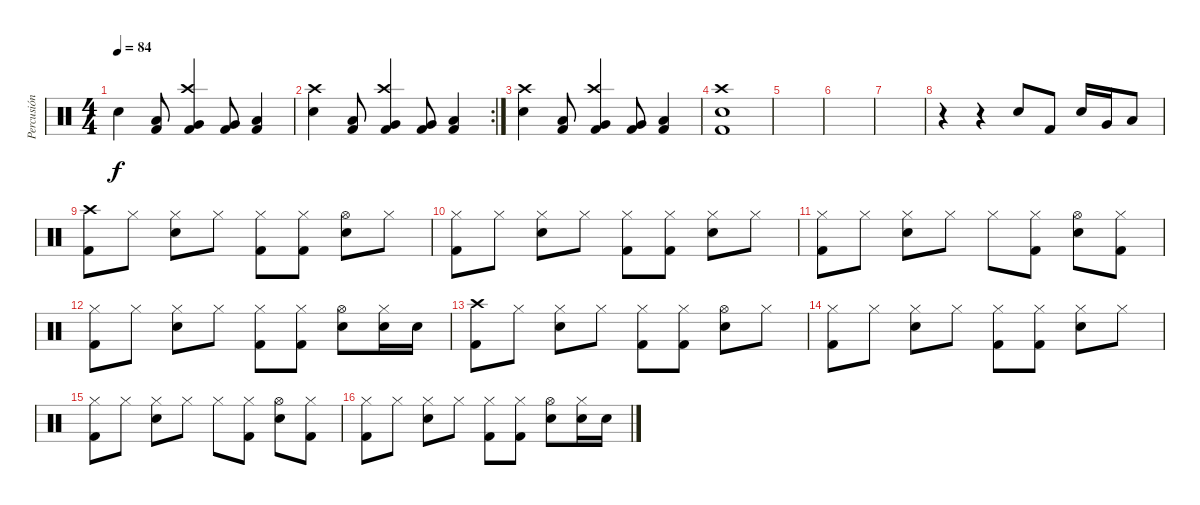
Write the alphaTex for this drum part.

\track ("Percusión" "Percusión") {instrument percussion}
\staff {score}
\articulation defaults
\ts (4 4)
\tempo 84
\clef neutral
\ks c "Electric Snare (hit)".4{dy f}
("Low Tom (hit)" "Kick (hit) 2").8 ("Crash high (hit)" "Very Low Tom (hit)" "Kick (hit) 2").4 ("Very Low Tom (hit)" "Kick (hit) 2").8 ("Low Floor Tom (hit)" "Kick (hit) 2").4 |
\rc 2
("Crash high (hit)" "Electric Snare (hit)").4 ("Low Tom (hit)" "Kick (hit) 2").8 ("Crash high (hit)" "Very Low Tom (hit)" "Kick (hit) 2").4 ("Very Low Tom (hit)" "Kick (hit) 2").8 ("Low Floor Tom (hit)" "Kick (hit) 2").4 |
("Crash high (hit)" "Electric Snare (hit)").4 ("Low Tom (hit)" "Kick (hit) 2").8 ("Crash high (hit)" "Very Low Tom (hit)" "Kick (hit) 2").4 ("Very Low Tom (hit)" "Kick (hit) 2").8 ("Low Floor Tom (hit)" "Kick (hit) 2").4 |
("Crash high (hit)" "Electric Snare (hit)" "Kick (hit) 2").1 |
|
|
|
r.4 r.4 "Snare (hit) 2".8 "Kick (hit) 2".8 "Snare (hit) 2".16 "Very Low Tom (hit)".16 "Low Tom (hit)".8 |
("Crash high (hit)" "Kick (hit) 2").8 "Hi-Hat (closed)".8 ("Hi-Hat (closed)" "Electric Snare (hit)").8 "Hi-Hat (closed)".8 ("Hi-Hat (closed)" "Kick (hit) 2").8 ("Hi-Hat (closed)" "Kick (hit) 2").8 ("Hi-Hat (open)" "Electric Snare (hit)").8 "Hi-Hat (closed)".8 |
("Hi-Hat (closed)" "Kick (hit) 2").8 "Hi-Hat (closed)".8 ("Hi-Hat (closed)" "Electric Snare (hit)").8 "Hi-Hat (closed)".8 ("Hi-Hat (closed)" "Kick (hit) 2").8 ("Hi-Hat (closed)" "Kick (hit) 2").8 ("Hi-Hat (closed)" "Electric Snare (hit)").8 "Hi-Hat (closed)".8 |
("Hi-Hat (closed)" "Kick (hit) 2").8 "Hi-Hat (closed)".8 ("Hi-Hat (closed)" "Electric Snare (hit)").8 "Hi-Hat (closed)".8 "Hi-Hat (closed)".8 ("Hi-Hat (closed)" "Kick (hit) 2").8 ("Hi-Hat (open)" "Electric Snare (hit)").8 ("Hi-Hat (closed)" "Kick (hit) 2").8 |
("Hi-Hat (closed)" "Kick (hit) 2").8 "Hi-Hat (closed)".8 ("Hi-Hat (closed)" "Electric Snare (hit)").8 "Hi-Hat (closed)".8 ("Hi-Hat (closed)" "Kick (hit) 2").8 ("Hi-Hat (closed)" "Kick (hit) 2").8 ("Hi-Hat (open)" "Electric Snare (hit)").8 ("Hi-Hat (closed)" "Electric Snare (hit)").16 "Electric Snare (hit)".16 |
("Crash high (hit)" "Kick (hit) 2").8 "Hi-Hat (closed)".8 ("Hi-Hat (closed)" "Electric Snare (hit)").8 "Hi-Hat (closed)".8 ("Hi-Hat (closed)" "Kick (hit) 2").8 ("Hi-Hat (closed)" "Kick (hit) 2").8 ("Hi-Hat (open)" "Electric Snare (hit)").8 "Hi-Hat (closed)".8 |
("Hi-Hat (closed)" "Kick (hit) 2").8 "Hi-Hat (closed)".8 ("Hi-Hat (closed)" "Electric Snare (hit)").8 "Hi-Hat (closed)".8 ("Hi-Hat (closed)" "Kick (hit) 2").8 ("Hi-Hat (closed)" "Kick (hit) 2").8 ("Hi-Hat (closed)" "Electric Snare (hit)").8 "Hi-Hat (closed)".8 |
("Hi-Hat (closed)" "Kick (hit) 2").8 "Hi-Hat (closed)".8 ("Hi-Hat (closed)" "Electric Snare (hit)").8 "Hi-Hat (closed)".8 "Hi-Hat (closed)".8 ("Hi-Hat (closed)" "Kick (hit) 2").8 ("Hi-Hat (open)" "Electric Snare (hit)").8 ("Hi-Hat (closed)" "Kick (hit) 2").8 |
("Hi-Hat (closed)" "Kick (hit) 2").8 "Hi-Hat (closed)".8 ("Hi-Hat (closed)" "Electric Snare (hit)").8 "Hi-Hat (closed)".8 ("Hi-Hat (closed)" "Kick (hit) 2").8 ("Hi-Hat (closed)" "Kick (hit) 2").8 ("Hi-Hat (open)" "Electric Snare (hit)").8 ("Hi-Hat (closed)" "Electric Snare (hit)").16 "Electric Snare (hit)".16
